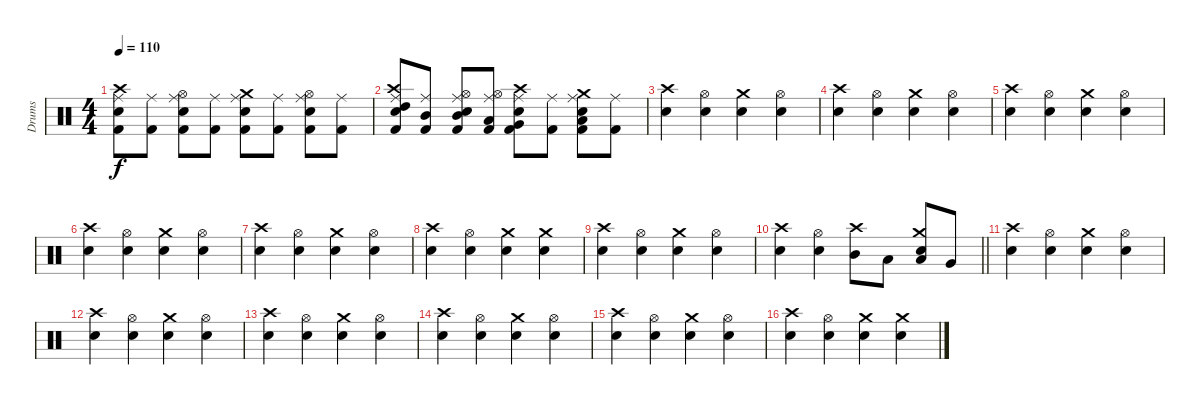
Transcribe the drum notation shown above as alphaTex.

\track ("Drums" "Drums") {instrument percussion}
\staff {score}
\articulation defaults
\ts (4 4)
\tempo 110
\clef neutral
\ks c
("Kick (hit) 2" "Crash high (hit)" "Ride (middle)" "Snare (hit) 2").8{dy f} ("Kick (hit) 2" "Ride (middle)").8 ("Kick (hit) 2" "Hi-Hat (open)" "Ride (middle)" "Snare (hit) 2").8 ("Kick (hit) 2" "Ride (middle)").8 ("Kick (hit) 2" "Crash medium (hit)" "Ride (middle)" "Snare (hit) 2").8 ("Kick (hit) 2" "Ride (middle)").8 ("Kick (hit) 2" "Hi-Hat (open)" "Ride (middle)" "Snare (hit) 2").8 ("Kick (hit) 2" "Ride (middle)").8 |
("Kick (hit) 2" "Crash high (hit)" "Ride (middle)" "High Tom (hit)" "Snare (hit) 2").8 ("Kick (hit) 2" "Ride (middle)" "Mid Tom (hit)").8 ("Kick (hit) 2" "Hi-Hat (open)" "Ride (middle)" "Mid Tom (hit)" "Snare (hit) 2").8 ("Kick (hit) 2" "Hi-Hat (open)" "Ride (middle)" "Low Tom (hit)").8 ("Kick (hit) 2" "Crash high (hit)" "Ride (middle)" "Very Low Tom (hit)" "Snare (hit) 2").8 ("Kick (hit) 2" "Ride (middle)").8 ("Kick (hit) 2" "Crash medium (hit)" "Ride (middle)" "Low Floor Tom (hit)" "Snare (hit) 2").8 ("Kick (hit) 2" "Ride (middle)").8 |
("Crash high (hit)" "Snare (hit) 2").4 ("Hi-Hat (open)" "Snare (hit) 2").4 ("Crash medium (hit)" "Snare (hit) 2").4 ("Hi-Hat (open)" "Snare (hit) 2").4 |
("Crash high (hit)" "Snare (hit) 2").4 ("Hi-Hat (open)" "Snare (hit) 2").4 ("Crash medium (hit)" "Snare (hit) 2").4 ("Hi-Hat (open)" "Snare (hit) 2").4 |
("Crash high (hit)" "Snare (hit) 2").4 ("Hi-Hat (open)" "Snare (hit) 2").4 ("Crash medium (hit)" "Snare (hit) 2").4 ("Hi-Hat (open)" "Snare (hit) 2").4 |
("Crash high (hit)" "Snare (hit) 2").4 ("Hi-Hat (open)" "Snare (hit) 2").4 ("Crash medium (hit)" "Snare (hit) 2").4 ("Hi-Hat (open)" "Snare (hit) 2").4 |
("Crash high (hit)" "Snare (hit) 2").4 ("Hi-Hat (open)" "Snare (hit) 2").4 ("Crash medium (hit)" "Snare (hit) 2").4 ("Hi-Hat (open)" "Snare (hit) 2").4 |
("Crash high (hit)" "Snare (hit) 2").4 ("Hi-Hat (open)" "Snare (hit) 2").4 ("Crash medium (hit)" "Snare (hit) 2").4 ("Crash medium (hit)" "Snare (hit) 2").4 |
("Crash high (hit)" "Snare (hit) 2").4 ("Hi-Hat (open)" "Snare (hit) 2").4 ("Crash medium (hit)" "Snare (hit) 2").4 ("Hi-Hat (open)" "Snare (hit) 2").4 |
\barLineRight lightlight
("Crash high (hit)" "Snare (hit) 2").4 ("Hi-Hat (open)" "Snare (hit) 2").4 ("Crash high (hit)" "Mid Tom (hit)").8 "Low Tom (hit)".8 ("Crash medium (hit)" "Low Tom (hit)" "Snare (hit) 2").8 "Very Low Tom (hit)".8 |
("Crash high (hit)" "Snare (hit) 2").4 ("Hi-Hat (open)" "Snare (hit) 2").4 ("Crash medium (hit)" "Snare (hit) 2").4 ("Hi-Hat (open)" "Snare (hit) 2").4 |
("Crash high (hit)" "Snare (hit) 2").4 ("Hi-Hat (open)" "Snare (hit) 2").4 ("Crash medium (hit)" "Snare (hit) 2").4 ("Hi-Hat (open)" "Snare (hit) 2").4 |
("Crash high (hit)" "Snare (hit) 2").4 ("Hi-Hat (open)" "Snare (hit) 2").4 ("Crash medium (hit)" "Snare (hit) 2").4 ("Hi-Hat (open)" "Snare (hit) 2").4 |
("Crash high (hit)" "Snare (hit) 2").4 ("Hi-Hat (open)" "Snare (hit) 2").4 ("Crash medium (hit)" "Snare (hit) 2").4 ("Hi-Hat (open)" "Snare (hit) 2").4 |
("Crash high (hit)" "Snare (hit) 2").4 ("Hi-Hat (open)" "Snare (hit) 2").4 ("Crash medium (hit)" "Snare (hit) 2").4 ("Hi-Hat (open)" "Snare (hit) 2").4 |
("Crash high (hit)" "Snare (hit) 2").4 ("Hi-Hat (open)" "Snare (hit) 2").4 ("Crash medium (hit)" "Snare (hit) 2").4 ("Crash medium (hit)" "Snare (hit) 2").4
